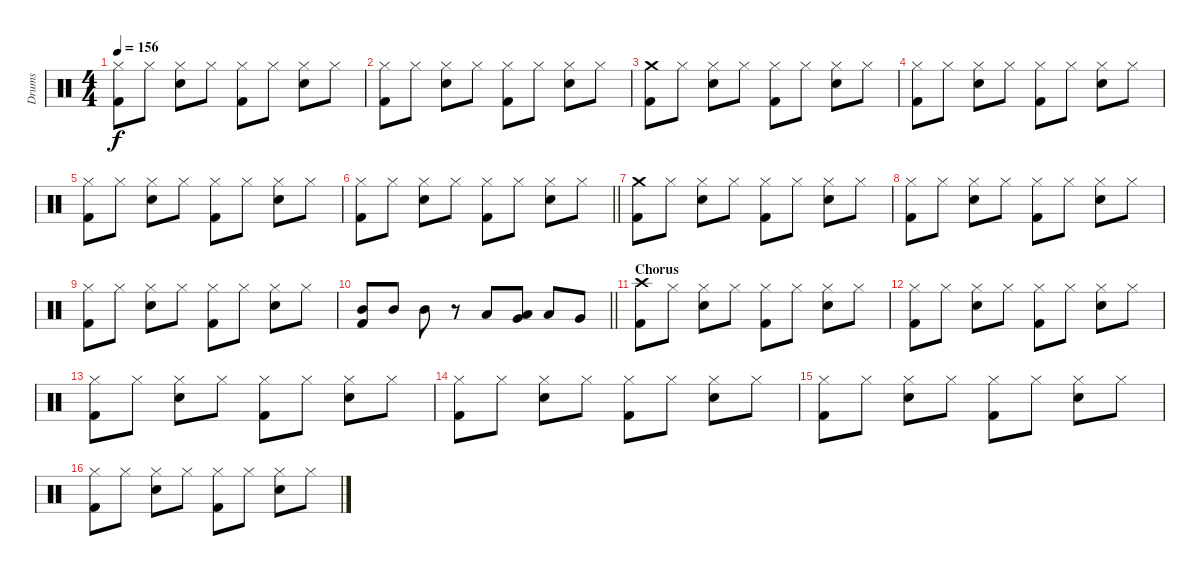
\track ("Drums" "Drums") {instrument percussion}
\staff {score}
\articulation defaults
\ts (4 4)
\tempo 156
\clef neutral
\ks c
("Hi-Hat (closed)" "Kick (hit) 2").8{dy f} "Hi-Hat (closed)".8 ("Hi-Hat (closed)" "Electric Snare (hit)").8 "Hi-Hat (closed)".8 ("Hi-Hat (closed)" "Kick (hit) 2").8 "Hi-Hat (closed)".8 ("Hi-Hat (closed)" "Electric Snare (hit)").8 "Hi-Hat (closed)".8 |
("Hi-Hat (closed)" "Kick (hit) 2").8 "Hi-Hat (closed)".8 ("Hi-Hat (closed)" "Electric Snare (hit)").8 "Hi-Hat (closed)".8 ("Hi-Hat (closed)" "Kick (hit) 2").8 "Hi-Hat (closed)".8 ("Hi-Hat (closed)" "Electric Snare (hit)").8 "Hi-Hat (closed)".8 |
("Crash medium (hit)" "Kick (hit) 2").8 "Hi-Hat (closed)".8 ("Hi-Hat (closed)" "Electric Snare (hit)").8 "Hi-Hat (closed)".8 ("Hi-Hat (closed)" "Kick (hit) 2").8 "Hi-Hat (closed)".8 ("Hi-Hat (closed)" "Electric Snare (hit)").8 "Hi-Hat (closed)".8 |
("Hi-Hat (closed)" "Kick (hit) 2").8 "Hi-Hat (closed)".8 ("Hi-Hat (closed)" "Electric Snare (hit)").8 "Hi-Hat (closed)".8 ("Hi-Hat (closed)" "Kick (hit) 2").8 "Hi-Hat (closed)".8 ("Hi-Hat (closed)" "Electric Snare (hit)").8 "Hi-Hat (closed)".8 |
("Hi-Hat (closed)" "Kick (hit) 2").8 "Hi-Hat (closed)".8 ("Hi-Hat (closed)" "Electric Snare (hit)").8 "Hi-Hat (closed)".8 ("Hi-Hat (closed)" "Kick (hit) 2").8 "Hi-Hat (closed)".8 ("Hi-Hat (closed)" "Electric Snare (hit)").8 "Hi-Hat (closed)".8 |
\barLineRight lightlight
("Hi-Hat (closed)" "Kick (hit) 2").8 "Hi-Hat (closed)".8 ("Hi-Hat (closed)" "Electric Snare (hit)").8 "Hi-Hat (closed)".8 ("Hi-Hat (closed)" "Kick (hit) 2").8 "Hi-Hat (closed)".8 ("Hi-Hat (closed)" "Electric Snare (hit)").8 "Hi-Hat (closed)".8 |
("Crash medium (hit)" "Kick (hit) 2").8 "Hi-Hat (closed)".8 ("Hi-Hat (closed)" "Electric Snare (hit)").8 "Hi-Hat (closed)".8 ("Hi-Hat (closed)" "Kick (hit) 2").8 "Hi-Hat (closed)".8 ("Hi-Hat (closed)" "Electric Snare (hit)").8 "Hi-Hat (closed)".8 |
("Hi-Hat (closed)" "Kick (hit) 2").8 "Hi-Hat (closed)".8 ("Hi-Hat (closed)" "Electric Snare (hit)").8 "Hi-Hat (closed)".8 ("Hi-Hat (closed)" "Kick (hit) 2").8 "Hi-Hat (closed)".8 ("Hi-Hat (closed)" "Electric Snare (hit)").8 "Hi-Hat (closed)".8 |
("Hi-Hat (closed)" "Kick (hit) 2").8 "Hi-Hat (closed)".8 ("Hi-Hat (closed)" "Electric Snare (hit)").8 "Hi-Hat (closed)".8 ("Hi-Hat (closed)" "Kick (hit) 2").8 "Hi-Hat (closed)".8 ("Hi-Hat (closed)" "Electric Snare (hit)").8 "Hi-Hat (closed)".8 |
\barLineRight lightlight
("Mid Tom (hit)" "Kick (hit) 2").8 "Mid Tom (hit)".8 "Mid Tom (hit)".8 r.8 "Low Tom (hit)".8 ("Low Tom (hit)" "Very Low Tom (hit)").8 "Low Tom (hit)".8 "Very Low Tom (hit)".8 |
\section ("" "Chorus")
("Crash high (hit)" "Kick (hit) 2").8 "Hi-Hat (closed)".8 ("Hi-Hat (closed)" "Electric Snare (hit)").8 "Hi-Hat (closed)".8 ("Hi-Hat (closed)" "Kick (hit) 2").8 "Hi-Hat (closed)".8 ("Hi-Hat (closed)" "Electric Snare (hit)").8 "Hi-Hat (closed)".8 |
("Hi-Hat (closed)" "Kick (hit) 2").8 "Hi-Hat (closed)".8 ("Hi-Hat (closed)" "Electric Snare (hit)").8 "Hi-Hat (closed)".8 ("Hi-Hat (closed)" "Kick (hit) 2").8 "Hi-Hat (closed)".8 ("Hi-Hat (closed)" "Electric Snare (hit)").8 "Hi-Hat (closed)".8 |
("Hi-Hat (closed)" "Kick (hit) 2").8 "Hi-Hat (closed)".8 ("Hi-Hat (closed)" "Electric Snare (hit)").8 "Hi-Hat (closed)".8 ("Hi-Hat (closed)" "Kick (hit) 2").8 "Hi-Hat (closed)".8 ("Hi-Hat (closed)" "Electric Snare (hit)").8 "Hi-Hat (closed)".8 |
("Hi-Hat (closed)" "Kick (hit) 2").8 "Hi-Hat (closed)".8 ("Hi-Hat (closed)" "Electric Snare (hit)").8 "Hi-Hat (closed)".8 ("Hi-Hat (closed)" "Kick (hit) 2").8 "Hi-Hat (closed)".8 ("Hi-Hat (closed)" "Electric Snare (hit)").8 "Hi-Hat (closed)".8 |
("Hi-Hat (closed)" "Kick (hit) 2").8 "Hi-Hat (closed)".8 ("Hi-Hat (closed)" "Electric Snare (hit)").8 "Hi-Hat (closed)".8 ("Hi-Hat (closed)" "Kick (hit) 2").8 "Hi-Hat (closed)".8 ("Hi-Hat (closed)" "Electric Snare (hit)").8 "Hi-Hat (closed)".8 |
("Hi-Hat (closed)" "Kick (hit) 2").8 "Hi-Hat (closed)".8 ("Hi-Hat (closed)" "Electric Snare (hit)").8 "Hi-Hat (closed)".8 ("Hi-Hat (closed)" "Kick (hit) 2").8 "Hi-Hat (closed)".8 ("Hi-Hat (closed)" "Electric Snare (hit)").8 "Hi-Hat (closed)".8
